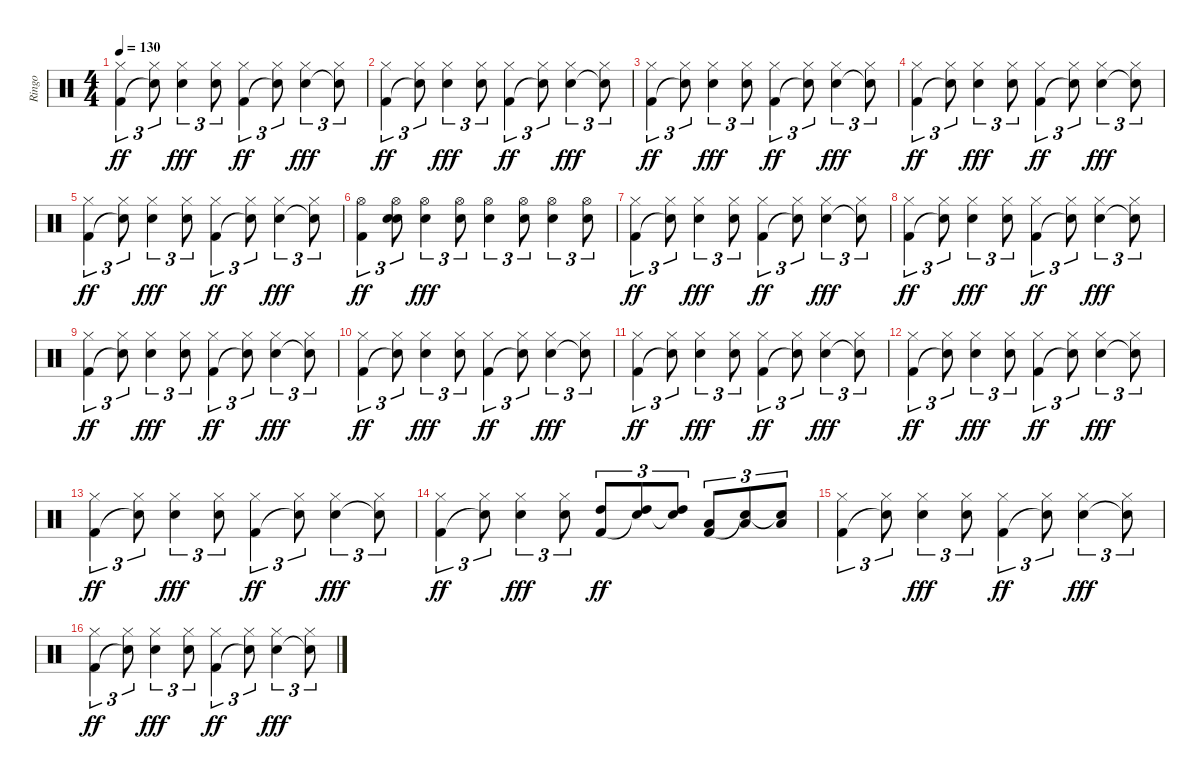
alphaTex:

\track ("Ringo" "Ringo") {instrument percussion}
\staff {score}
\articulation defaults
\ts (4 4)
\tempo 130
\clef neutral
\ks c
("Hi-Hat (closed)" "Kick (hit) 2").4{tu (3 2) dy ff} ("Hi-Hat (closed)" "Snare (hit)"{t}).8{tu (3 2)} ("Hi-Hat (closed)" "Electric Snare (hit)").4{tu (3 2) dy fff} ("Hi-Hat (closed)" "Electric Snare (hit)").8{tu (3 2)} ("Hi-Hat (closed)" "Kick (hit) 2").4{tu (3 2) dy ff} ("Hi-Hat (closed)" "Snare (hit)"{t}).8{tu (3 2)} ("Hi-Hat (closed)" "Electric Snare (hit)").4{tu (3 2) dy fff} ("Hi-Hat (closed)" "Snare (hit)"{t}).8{tu (3 2)} |
("Hi-Hat (closed)" "Kick (hit) 2").4{tu (3 2) dy ff} ("Hi-Hat (closed)" "Snare (hit)"{t}).8{tu (3 2)} ("Hi-Hat (closed)" "Electric Snare (hit)").4{tu (3 2) dy fff} ("Hi-Hat (closed)" "Electric Snare (hit)").8{tu (3 2)} ("Hi-Hat (closed)" "Kick (hit) 2").4{tu (3 2) dy ff} ("Hi-Hat (closed)" "Snare (hit)"{t}).8{tu (3 2)} ("Hi-Hat (closed)" "Electric Snare (hit)").4{tu (3 2) dy fff} ("Hi-Hat (closed)" "Snare (hit)"{t}).8{tu (3 2)} |
("Hi-Hat (closed)" "Kick (hit) 2").4{tu (3 2) dy ff} ("Hi-Hat (closed)" "Snare (hit)"{t}).8{tu (3 2)} ("Hi-Hat (closed)" "Electric Snare (hit)").4{tu (3 2) dy fff} ("Hi-Hat (closed)" "Electric Snare (hit)").8{tu (3 2)} ("Hi-Hat (closed)" "Kick (hit) 2").4{tu (3 2) dy ff} ("Hi-Hat (closed)" "Snare (hit)"{t}).8{tu (3 2)} ("Hi-Hat (closed)" "Electric Snare (hit)").4{tu (3 2) dy fff} ("Hi-Hat (closed)" "Snare (hit)"{t}).8{tu (3 2)} |
("Hi-Hat (closed)" "Kick (hit) 2").4{tu (3 2) dy ff} ("Hi-Hat (closed)" "Snare (hit)"{t}).8{tu (3 2)} ("Hi-Hat (closed)" "Electric Snare (hit)").4{tu (3 2) dy fff} ("Hi-Hat (closed)" "Electric Snare (hit)").8{tu (3 2)} ("Hi-Hat (closed)" "Kick (hit) 2").4{tu (3 2) dy ff} ("Hi-Hat (closed)" "Snare (hit)"{t}).8{tu (3 2)} ("Hi-Hat (closed)" "Electric Snare (hit)").4{tu (3 2) dy fff} ("Hi-Hat (closed)" "Snare (hit)"{t}).8{tu (3 2)} |
("Hi-Hat (closed)" "Kick (hit) 2").4{tu (3 2) dy ff} ("Hi-Hat (closed)" "Snare (hit)"{t}).8{tu (3 2)} ("Hi-Hat (closed)" "Electric Snare (hit)").4{tu (3 2) dy fff} ("Hi-Hat (closed)" "Electric Snare (hit)").8{tu (3 2)} ("Hi-Hat (closed)" "Kick (hit) 2").4{tu (3 2) dy ff} ("Hi-Hat (closed)" "Snare (hit)"{t}).8{tu (3 2)} ("Hi-Hat (closed)" "Electric Snare (hit)").4{tu (3 2) dy fff} ("Hi-Hat (closed)" "Snare (hit)"{t}).8{tu (3 2)} |
("Hi-Hat (open)" "Kick (hit) 2").4{tu (3 2) dy ff} ("Hi-Hat (open)" "Electric Snare (hit)" "Snare (hit)").8{tu (3 2)} ("Hi-Hat (open)" "Electric Snare (hit)").4{tu (3 2) dy fff} ("Hi-Hat (open)" "Electric Snare (hit)").8{tu (3 2)} ("Hi-Hat (open)" "Electric Snare (hit)").4{tu (3 2)} ("Hi-Hat (open)" "Electric Snare (hit)").8{tu (3 2)} ("Hi-Hat (open)" "Electric Snare (hit)").4{tu (3 2)} ("Hi-Hat (open)" "Electric Snare (hit)").8{tu (3 2)} |
("Hi-Hat (closed)" "Kick (hit) 2").4{tu (3 2) dy ff} ("Hi-Hat (closed)" "Snare (hit)"{t}).8{tu (3 2)} ("Hi-Hat (closed)" "Electric Snare (hit)").4{tu (3 2) dy fff} ("Hi-Hat (closed)" "Electric Snare (hit)").8{tu (3 2)} ("Hi-Hat (closed)" "Kick (hit) 2").4{tu (3 2) dy ff} ("Hi-Hat (closed)" "Snare (hit)"{t}).8{tu (3 2)} ("Hi-Hat (closed)" "Electric Snare (hit)").4{tu (3 2) dy fff} ("Hi-Hat (closed)" "Snare (hit)"{t}).8{tu (3 2)} |
("Hi-Hat (closed)" "Kick (hit) 2").4{tu (3 2) dy ff} ("Hi-Hat (closed)" "Snare (hit)"{t}).8{tu (3 2)} ("Hi-Hat (closed)" "Electric Snare (hit)").4{tu (3 2) dy fff} ("Hi-Hat (closed)" "Electric Snare (hit)").8{tu (3 2)} ("Hi-Hat (closed)" "Kick (hit) 2").4{tu (3 2) dy ff} ("Hi-Hat (closed)" "Snare (hit)"{t}).8{tu (3 2)} ("Hi-Hat (closed)" "Electric Snare (hit)").4{tu (3 2) dy fff} ("Hi-Hat (closed)" "Snare (hit)"{t}).8{tu (3 2)} |
("Hi-Hat (closed)" "Kick (hit) 2").4{tu (3 2) dy ff} ("Hi-Hat (closed)" "Snare (hit)"{t}).8{tu (3 2)} ("Hi-Hat (closed)" "Electric Snare (hit)").4{tu (3 2) dy fff} ("Hi-Hat (closed)" "Electric Snare (hit)").8{tu (3 2)} ("Hi-Hat (closed)" "Kick (hit) 2").4{tu (3 2) dy ff} ("Hi-Hat (closed)" "Snare (hit)"{t}).8{tu (3 2)} ("Hi-Hat (closed)" "Electric Snare (hit)").4{tu (3 2) dy fff} ("Hi-Hat (closed)" "Snare (hit)"{t}).8{tu (3 2)} |
("Hi-Hat (closed)" "Kick (hit) 2").4{tu (3 2) dy ff} ("Hi-Hat (closed)" "Snare (hit)"{t}).8{tu (3 2)} ("Hi-Hat (closed)" "Electric Snare (hit)").4{tu (3 2) dy fff} ("Hi-Hat (closed)" "Electric Snare (hit)").8{tu (3 2)} ("Hi-Hat (closed)" "Kick (hit) 2").4{tu (3 2) dy ff} ("Hi-Hat (closed)" "Snare (hit)"{t}).8{tu (3 2)} ("Hi-Hat (closed)" "Electric Snare (hit)").4{tu (3 2) dy fff} ("Hi-Hat (closed)" "Snare (hit)"{t}).8{tu (3 2)} |
("Hi-Hat (closed)" "Kick (hit) 2").4{tu (3 2) dy ff} ("Hi-Hat (closed)" "Snare (hit)"{t}).8{tu (3 2)} ("Hi-Hat (closed)" "Electric Snare (hit)").4{tu (3 2) dy fff} ("Hi-Hat (closed)" "Electric Snare (hit)").8{tu (3 2)} ("Hi-Hat (closed)" "Kick (hit) 2").4{tu (3 2) dy ff} ("Hi-Hat (closed)" "Snare (hit)"{t}).8{tu (3 2)} ("Hi-Hat (closed)" "Electric Snare (hit)").4{tu (3 2) dy fff} ("Hi-Hat (closed)" "Snare (hit)"{t}).8{tu (3 2)} |
("Hi-Hat (closed)" "Kick (hit) 2").4{tu (3 2) dy ff} ("Hi-Hat (closed)" "Snare (hit)"{t}).8{tu (3 2)} ("Hi-Hat (closed)" "Electric Snare (hit)").4{tu (3 2) dy fff} ("Hi-Hat (closed)" "Electric Snare (hit)").8{tu (3 2)} ("Hi-Hat (closed)" "Kick (hit) 2").4{tu (3 2) dy ff} ("Hi-Hat (closed)" "Snare (hit)"{t}).8{tu (3 2)} ("Hi-Hat (closed)" "Electric Snare (hit)").4{tu (3 2) dy fff} ("Hi-Hat (closed)" "Snare (hit)"{t}).8{tu (3 2)} |
("Hi-Hat (closed)" "Kick (hit) 2").4{tu (3 2) dy ff} ("Hi-Hat (closed)" "Snare (hit)"{t}).8{tu (3 2)} ("Hi-Hat (closed)" "Electric Snare (hit)").4{tu (3 2) dy fff} ("Hi-Hat (closed)" "Electric Snare (hit)").8{tu (3 2)} ("Hi-Hat (closed)" "Kick (hit) 2").4{tu (3 2) dy ff} ("Hi-Hat (closed)" "Snare (hit)"{t}).8{tu (3 2)} ("Hi-Hat (closed)" "Electric Snare (hit)").4{tu (3 2) dy fff} ("Hi-Hat (closed)" "Snare (hit)"{t}).8{tu (3 2)} |
("Hi-Hat (closed)" "Kick (hit) 2").4{tu (3 2) dy ff} ("Hi-Hat (closed)" "Snare (hit)"{t}).8{tu (3 2)} ("Hi-Hat (closed)" "Electric Snare (hit)").4{tu (3 2) dy fff} ("Hi-Hat (closed)" "Electric Snare (hit)").8{tu (3 2)} ("High Tom (hit)" "Kick (hit) 2").8{tu (3 2) dy ff} ("High Tom (hit)" "Snare (hit)"{t}).8{tu (3 2)} ("High Tom (hit)" "Snare (hit)"{t}).8{tu (3 2)} ("Low Tom (hit)" "Kick (hit) 2").8{tu (3 2)} ("Low Tom (hit)" "Snare (hit)"{t}).8{tu (3 2)} ("Low Tom (hit)" "Snare (hit)"{t}).8{tu (3 2)} |
("Hi-Hat (closed)" "Kick (hit) 2").4{tu (3 2)} ("Hi-Hat (closed)" "Snare (hit)"{t}).8{tu (3 2)} ("Hi-Hat (closed)" "Electric Snare (hit)").4{tu (3 2) dy fff} ("Hi-Hat (closed)" "Electric Snare (hit)").8{tu (3 2)} ("Hi-Hat (closed)" "Kick (hit) 2").4{tu (3 2) dy ff} ("Hi-Hat (closed)" "Snare (hit)"{t}).8{tu (3 2)} ("Hi-Hat (closed)" "Electric Snare (hit)").4{tu (3 2) dy fff} ("Hi-Hat (closed)" "Snare (hit)"{t}).8{tu (3 2)} |
("Hi-Hat (closed)" "Kick (hit) 2").4{tu (3 2) dy ff} ("Hi-Hat (closed)" "Snare (hit)"{t}).8{tu (3 2)} ("Hi-Hat (closed)" "Electric Snare (hit)").4{tu (3 2) dy fff} ("Hi-Hat (closed)" "Electric Snare (hit)").8{tu (3 2)} ("Hi-Hat (closed)" "Kick (hit) 2").4{tu (3 2) dy ff} ("Hi-Hat (closed)" "Snare (hit)"{t}).8{tu (3 2)} ("Hi-Hat (closed)" "Electric Snare (hit)").4{tu (3 2) dy fff} ("Hi-Hat (closed)" "Snare (hit)"{t}).8{tu (3 2)}
